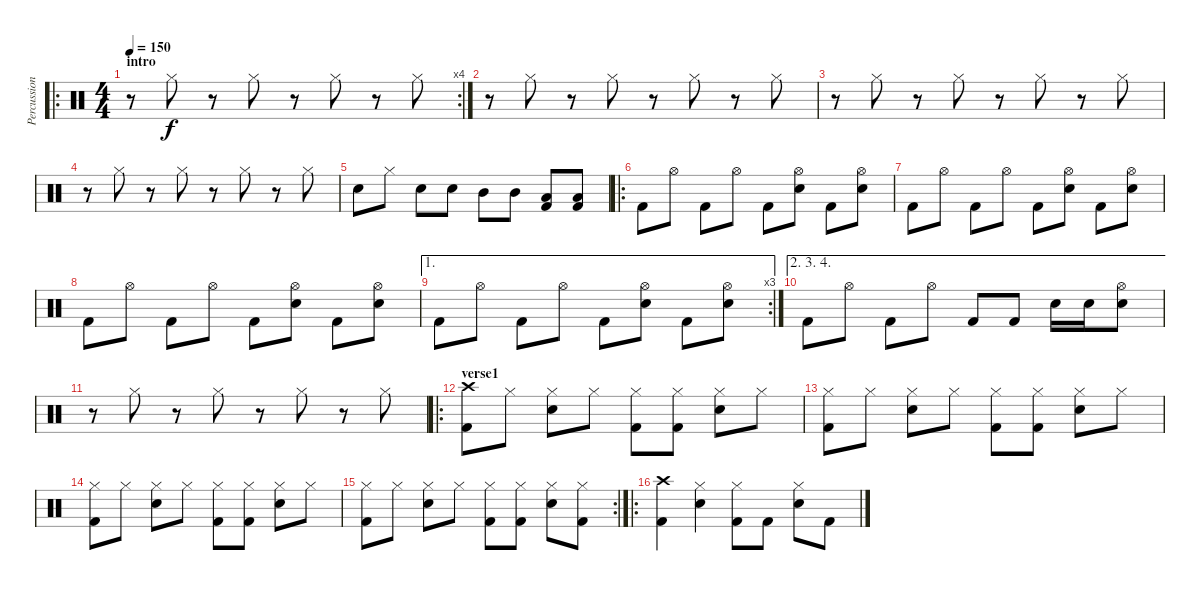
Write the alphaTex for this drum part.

\track ("Percussion" "Percussion") {instrument percussion}
\staff {score}
\articulation defaults
\ro
\rc 4
\ts (4 4)
\section ("" "intro")
\tempo 150
\clef neutral
\ks c
r.8{dy f} "Hi-Hat (closed)".8 r.8 "Hi-Hat (closed)".8 r.8 "Hi-Hat (closed)".8 r.8 "Hi-Hat (closed)".8 |
r.8 "Hi-Hat (closed)".8 r.8 "Hi-Hat (closed)".8 r.8 "Hi-Hat (closed)".8 r.8 "Hi-Hat (closed)".8 |
r.8 "Hi-Hat (closed)".8 r.8 "Hi-Hat (closed)".8 r.8 "Hi-Hat (closed)".8 r.8 "Hi-Hat (closed)".8 |
r.8 "Hi-Hat (closed)".8 r.8 "Hi-Hat (closed)".8 r.8 "Hi-Hat (closed)".8 r.8 "Hi-Hat (closed)".8 |
"Electric Snare (hit)".8 "Hi-Hat (closed)".8 "Electric Snare (hit)".8 "Electric Snare (hit)".8 "Mid Tom (hit)".8 "Mid Tom (hit)".8 ("Low Tom (hit)" "Kick (hit) 2").8 ("Low Tom (hit)" "Kick (hit) 2").8 |
\ro "Kick (hit) 2".8 "Hi-Hat (open)".8 "Kick (hit) 2".8 "Hi-Hat (open)".8 "Kick (hit) 2".8
("Hi-Hat (open)" "Electric Snare (hit)").8 "Kick (hit) 2".8 ("Hi-Hat (open)" "Electric Snare (hit)").8 |
"Kick (hit) 2".8 "Hi-Hat (open)".8 "Kick (hit) 2".8 "Hi-Hat (open)".8 "Kick (hit) 2".8 ("Hi-Hat (open)" "Electric Snare (hit)").8 "Kick (hit) 2".8 ("Hi-Hat (open)" "Electric Snare (hit)").8 |
"Kick (hit) 2".8 "Hi-Hat (open)".8 "Kick (hit) 2".8 "Hi-Hat (open)".8 "Kick (hit) 2".8 ("Hi-Hat (open)" "Electric Snare (hit)").8 "Kick (hit) 2".8 ("Hi-Hat (open)" "Electric Snare (hit)").8 |
\ae 1
\rc 3 "Kick (hit) 2".8 "Hi-Hat (open)".8 "Kick (hit) 2".8 "Hi-Hat (open)".8 "Kick (hit) 2".8
("Hi-Hat (open)" "Electric Snare (hit)").8 "Kick (hit) 2".8 ("Hi-Hat (open)" "Electric Snare (hit)").8 |
\ae (2 3 4)
"Kick (hit) 2".8 "Hi-Hat (open)".8 "Kick (hit) 2".8 "Hi-Hat (open)".8 "Kick (hit) 2".8 "Kick (hit) 2".8 "Electric Snare (hit)".16 "Electric Snare (hit)".16 ("Hi-Hat (open)" "Electric Snare (hit)").8 |
r.8 "Hi-Hat (closed)".8 r.8 "Hi-Hat (closed)".8 r.8 "Hi-Hat (closed)".8 r.8 "Hi-Hat (closed)".8 |
\ro
\section ("" "verse1")
("Crash high (hit)" "Kick (hit) 2").8 "Hi-Hat (closed)".8 ("Hi-Hat (closed)" "Electric Snare (hit)").8 "Hi-Hat (closed)".8 ("Hi-Hat (closed)" "Kick (hit) 2").8 ("Hi-Hat (closed)" "Kick (hit) 2").8 ("Hi-Hat (closed)" "Electric Snare (hit)").8 "Hi-Hat (closed)".8 |
("Hi-Hat (closed)" "Kick (hit) 2").8 "Hi-Hat (closed)".8 ("Hi-Hat (closed)" "Electric Snare (hit)").8 "Hi-Hat (closed)".8 ("Hi-Hat (closed)" "Kick (hit) 2").8 ("Hi-Hat (closed)" "Kick (hit) 2").8 ("Hi-Hat (closed)" "Electric Snare (hit)").8 "Hi-Hat (closed)".8 |
("Hi-Hat (closed)" "Kick (hit) 2").8 "Hi-Hat (closed)".8 ("Hi-Hat (closed)" "Electric Snare (hit)").8 "Hi-Hat (closed)".8 ("Hi-Hat (closed)" "Kick (hit) 2").8 ("Hi-Hat (closed)" "Kick (hit) 2").8 ("Hi-Hat (closed)" "Electric Snare (hit)").8 "Hi-Hat (closed)".8 |
\rc 2
("Hi-Hat (closed)" "Kick (hit) 2").8 "Hi-Hat (closed)".8 ("Hi-Hat (closed)" "Electric Snare (hit)").8 "Hi-Hat (closed)".8 ("Hi-Hat (closed)" "Kick (hit) 2").8 ("Hi-Hat (closed)" "Kick (hit) 2").8 ("Hi-Hat (closed)" "Electric Snare (hit)").8 ("Hi-Hat (closed)" "Kick (hit) 2").8 |
\ro
("Crash high (hit)" "Kick (hit) 2").4 ("Hi-Hat (closed)" "Electric Snare (hit)").4 ("Hi-Hat (closed)" "Kick (hit) 2").8 "Kick (hit) 2".8 ("Hi-Hat (closed)" "Electric Snare (hit)").8 "Kick (hit) 2".8
